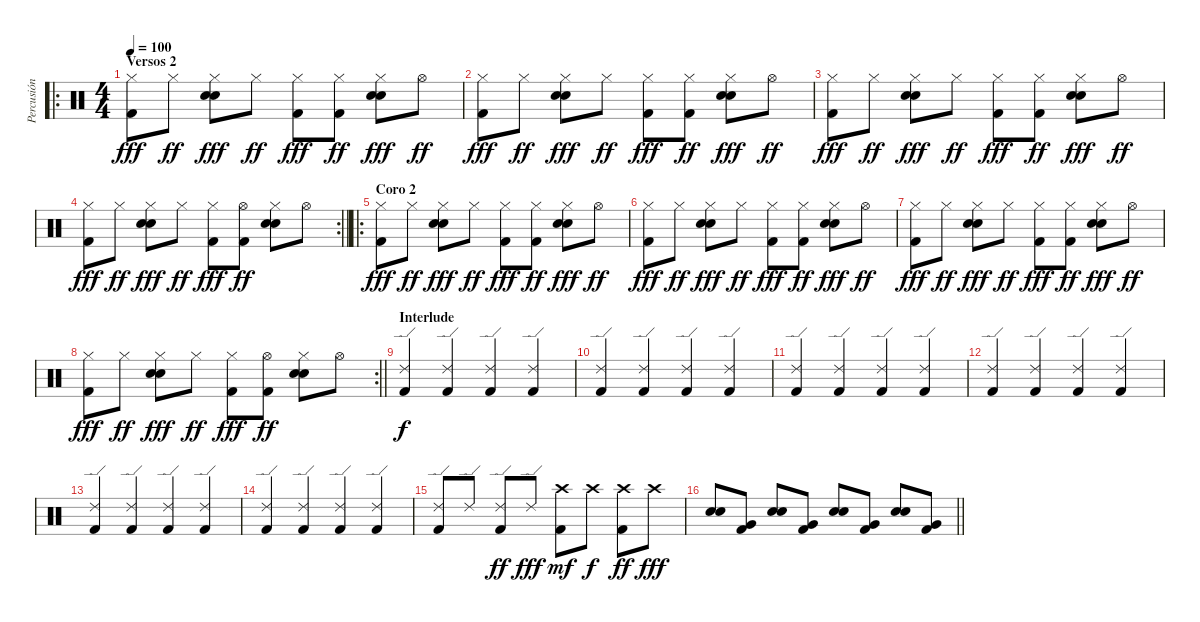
\track ("Percusión" "Percusión") {instrument percussion}
\staff {score}
\articulation defaults
\ro
\ts (4 4)
\section ("" "Versos 2")
\tempo 100
\clef neutral
\ks c
("Hi-Hat (closed)" "Kick (hit) 2").8{dy fff} "Hi-Hat (closed)".8{dy ff} ("Hi-Hat (closed)" "Electric Snare (hit)" "Electric Snare (hit)").8{dy fff} "Hi-Hat (closed)".8{dy ff} ("Hi-Hat (closed)" "Kick (hit) 2").8{dy fff} ("Hi-Hat (closed)" "Kick (hit) 2").8{dy ff} ("Hi-Hat (closed)" "Electric Snare (hit)" "Electric Snare (hit)").8{dy fff} "Hi-Hat (open)".8{dy ff} |
("Hi-Hat (closed)" "Kick (hit) 2").8{dy fff} "Hi-Hat (closed)".8{dy ff} ("Hi-Hat (closed)" "Electric Snare (hit)" "Electric Snare (hit)").8{dy fff} "Hi-Hat (closed)".8{dy ff} ("Hi-Hat (closed)" "Kick (hit) 2").8{dy fff} ("Hi-Hat (closed)" "Kick (hit) 2").8{dy ff} ("Hi-Hat (closed)" "Electric Snare (hit)" "Electric Snare (hit)").8{dy fff} "Hi-Hat (open)".8{dy ff} |
("Hi-Hat (closed)" "Kick (hit) 2").8{dy fff} "Hi-Hat (closed)".8{dy ff} ("Hi-Hat (closed)" "Electric Snare (hit)" "Electric Snare (hit)").8{dy fff} "Hi-Hat (closed)".8{dy ff} ("Hi-Hat (closed)" "Kick (hit) 2").8{dy fff} ("Hi-Hat (closed)" "Kick (hit) 2").8{dy ff} ("Hi-Hat (closed)" "Electric Snare (hit)" "Electric Snare (hit)").8{dy fff} "Hi-Hat (open)".8{dy ff} |
\rc 2
\barLineRight lightlight
("Hi-Hat (closed)" "Kick (hit) 2").8{dy fff} "Hi-Hat (closed)".8{dy ff} ("Hi-Hat (closed)" "Electric Snare (hit)" "Electric Snare (hit)").8{dy fff} "Hi-Hat (closed)".8{dy ff} ("Hi-Hat (closed)" "Kick (hit) 2").8{dy fff} ("Hi-Hat (open)" "Kick (hit) 2").8{dy ff} ("Hi-Hat (closed)" "Electric Snare (hit)" "Electric Snare (hit)").8 "Hi-Hat (open)".8 |
\ro
\section ("" "Coro 2")
("Hi-Hat (closed)" "Kick (hit) 2").8{dy fff} "Hi-Hat (closed)".8{dy ff} ("Hi-Hat (closed)" "Electric Snare (hit)" "Electric Snare (hit)").8{dy fff} "Hi-Hat (closed)".8{dy ff} ("Hi-Hat (closed)" "Kick (hit) 2").8{dy fff} ("Hi-Hat (closed)" "Kick (hit) 2").8{dy ff} ("Hi-Hat (closed)" "Electric Snare (hit)" "Electric Snare (hit)").8{dy fff} "Hi-Hat (open)".8{dy ff} |
("Hi-Hat (closed)" "Kick (hit) 2").8{dy fff} "Hi-Hat (closed)".8{dy ff} ("Hi-Hat (closed)" "Electric Snare (hit)" "Electric Snare (hit)").8{dy fff} "Hi-Hat (closed)".8{dy ff} ("Hi-Hat (closed)" "Kick (hit) 2").8{dy fff} ("Hi-Hat (closed)" "Kick (hit) 2").8{dy ff} ("Hi-Hat (closed)" "Electric Snare (hit)" "Electric Snare (hit)").8{dy fff} "Hi-Hat (open)".8{dy ff} |
("Hi-Hat (closed)" "Kick (hit) 2").8{dy fff} "Hi-Hat (closed)".8{dy ff} ("Hi-Hat (closed)" "Electric Snare (hit)" "Electric Snare (hit)").8{dy fff} "Hi-Hat (closed)".8{dy ff} ("Hi-Hat (closed)" "Kick (hit) 2").8{dy fff} ("Hi-Hat (closed)" "Kick (hit) 2").8{dy ff} ("Hi-Hat (closed)" "Electric Snare (hit)" "Electric Snare (hit)").8{dy fff} "Hi-Hat (open)".8{dy ff} |
\rc 2
\barLineRight lightlight
("Hi-Hat (closed)" "Kick (hit) 2").8{dy fff} "Hi-Hat (closed)".8{dy ff} ("Hi-Hat (closed)" "Electric Snare (hit)" "Electric Snare (hit)").8{dy fff} "Hi-Hat (closed)".8{dy ff} ("Hi-Hat (closed)" "Kick (hit) 2").8{dy fff} ("Hi-Hat (open)" "Kick (hit) 2").8{dy ff} ("Hi-Hat (closed)" "Electric Snare (hit)" "Electric Snare (hit)").8 "Hi-Hat (open)".8 |
\section ("" "Interlude")
("Kick (hit) 2" "Ride (edge) 2").4{dy f} ("Kick (hit) 2" "Ride (edge) 2").4 ("Kick (hit) 2" "Ride (edge) 2").4 ("Kick (hit) 2" "Ride (edge) 2").4 |
("Kick (hit) 2" "Ride (edge) 2").4 ("Kick (hit) 2" "Ride (edge) 2").4 ("Kick (hit) 2" "Ride (edge) 2").4 ("Kick (hit) 2" "Ride (edge) 2").4 |
("Kick (hit) 2" "Ride (edge) 2").4 ("Kick (hit) 2" "Ride (edge) 2").4 ("Kick (hit) 2" "Ride (edge) 2").4 ("Kick (hit) 2" "Ride (edge) 2").4 |
("Kick (hit) 2" "Ride (edge) 2").4 ("Kick (hit) 2" "Ride (edge) 2").4 ("Kick (hit) 2" "Ride (edge) 2").4 ("Kick (hit) 2" "Ride (edge) 2").4 |
("Kick (hit) 2" "Ride (edge) 2").4 ("Kick (hit) 2" "Ride (edge) 2").4 ("Kick (hit) 2" "Ride (edge) 2").4 ("Kick (hit) 2" "Ride (edge) 2").4 |
("Kick (hit) 2" "Ride (edge) 2").4 ("Kick (hit) 2" "Ride (edge) 2").4 ("Kick (hit) 2" "Ride (edge) 2").4 ("Kick (hit) 2" "Ride (edge) 2").4 |
("Kick (hit) 2" "Ride (edge) 2").8 "Ride (edge) 2".8 ("Kick (hit) 2" "Ride (edge) 2").8{dy ff} "Ride (edge) 2".8{dy fff} ("Kick (hit) 2" "Crash high (hit)").8{dy mf} "Crash high (hit)".8{dy f} ("Kick (hit) 2" "Crash high (hit)").8{dy ff} "Crash high (hit)".8{dy fff} |
\barLineRight lightlight
("Electric Snare (hit)" "Electric Snare (hit)").8 ("Very Low Tom (hit)" "Kick (hit) 2").8 ("Electric Snare (hit)" "Electric Snare (hit)").8 ("Very Low Tom (hit)" "Kick (hit) 2").8 ("Electric Snare (hit)" "Electric Snare (hit)").8 ("Very Low Tom (hit)" "Kick (hit) 2").8 ("Electric Snare (hit)" "Electric Snare (hit)").8 ("Very Low Tom (hit)" "Kick (hit) 2").8
